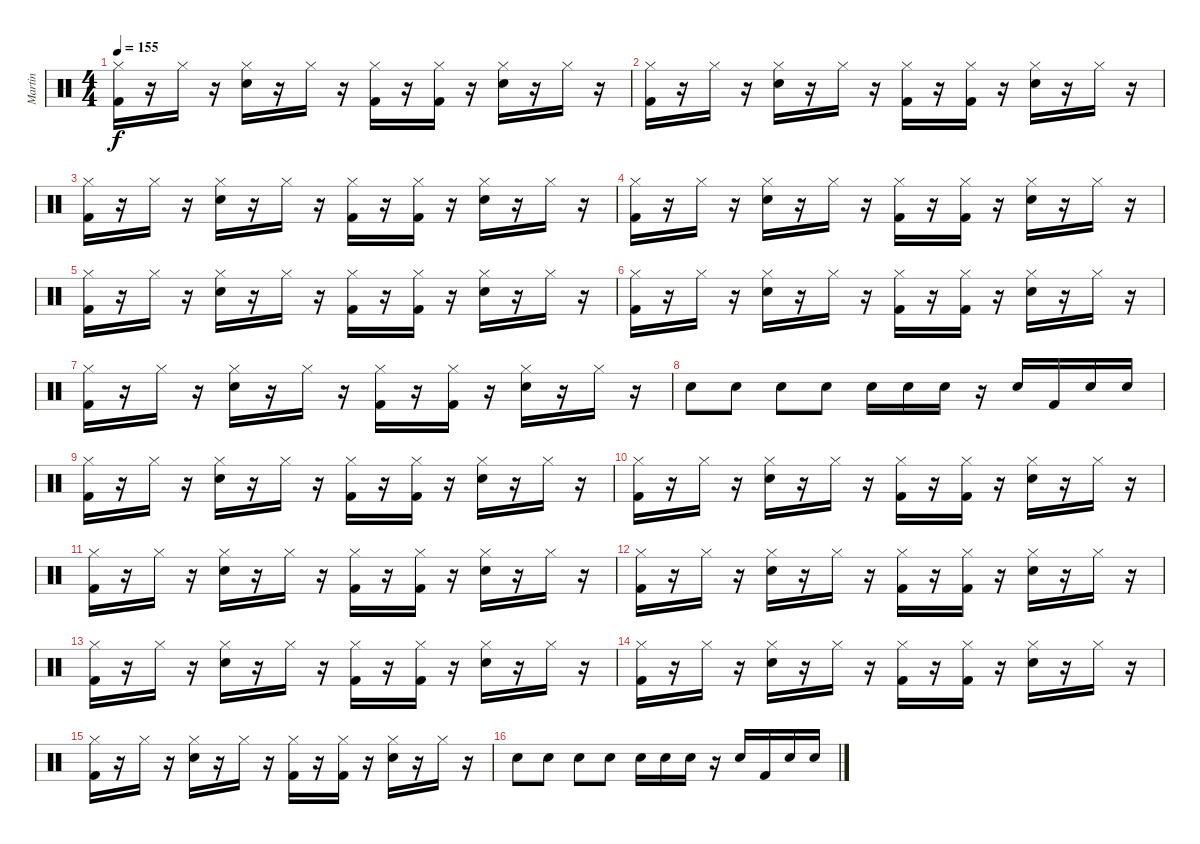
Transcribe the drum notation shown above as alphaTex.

\track ("Martin" "Martin") {instrument percussion}
\staff {score}
\articulation defaults
\ts (4 4)
\tempo 155
\clef neutral
\ks c
("Kick (hit) 2" "Hi-Hat (closed)").16{dy f} r.16 "Hi-Hat (closed)".16 r.16 ("Electric Snare (hit)" "Hi-Hat (closed)").16 r.16 "Hi-Hat (closed)".16 r.16 ("Kick (hit) 2" "Hi-Hat (closed)").16 r.16 ("Kick (hit) 2" "Hi-Hat (closed)").16 r.16 ("Electric Snare (hit)" "Hi-Hat (closed)").16 r.16 "Hi-Hat (closed)".16 r.16 |
("Kick (hit) 2" "Hi-Hat (closed)").16 r.16 "Hi-Hat (closed)".16 r.16 ("Electric Snare (hit)" "Hi-Hat (closed)").16 r.16 "Hi-Hat (closed)".16 r.16 ("Kick (hit) 2" "Hi-Hat (closed)").16 r.16 ("Kick (hit) 2" "Hi-Hat (closed)").16 r.16 ("Electric Snare (hit)" "Hi-Hat (closed)").16 r.16 "Hi-Hat (closed)".16 r.16 |
("Kick (hit) 2" "Hi-Hat (closed)").16 r.16 "Hi-Hat (closed)".16 r.16 ("Electric Snare (hit)" "Hi-Hat (closed)").16 r.16 "Hi-Hat (closed)".16 r.16 ("Kick (hit) 2" "Hi-Hat (closed)").16 r.16 ("Kick (hit) 2" "Hi-Hat (closed)").16 r.16 ("Electric Snare (hit)" "Hi-Hat (closed)").16 r.16 "Hi-Hat (closed)".16 r.16 |
("Kick (hit) 2" "Hi-Hat (closed)").16 r.16 "Hi-Hat (closed)".16 r.16 ("Electric Snare (hit)" "Hi-Hat (closed)").16 r.16 "Hi-Hat (closed)".16 r.16 ("Kick (hit) 2" "Hi-Hat (closed)").16 r.16 ("Kick (hit) 2" "Hi-Hat (closed)").16 r.16 ("Electric Snare (hit)" "Hi-Hat (closed)").16 r.16 "Hi-Hat (closed)".16 r.16 |
("Kick (hit) 2" "Hi-Hat (closed)").16 r.16 "Hi-Hat (closed)".16 r.16 ("Electric Snare (hit)" "Hi-Hat (closed)").16 r.16 "Hi-Hat (closed)".16 r.16 ("Kick (hit) 2" "Hi-Hat (closed)").16 r.16 ("Kick (hit) 2" "Hi-Hat (closed)").16 r.16 ("Electric Snare (hit)" "Hi-Hat (closed)").16 r.16 "Hi-Hat (closed)".16 r.16 |
("Kick (hit) 2" "Hi-Hat (closed)").16 r.16 "Hi-Hat (closed)".16 r.16 ("Electric Snare (hit)" "Hi-Hat (closed)").16 r.16 "Hi-Hat (closed)".16 r.16 ("Kick (hit) 2" "Hi-Hat (closed)").16 r.16 ("Kick (hit) 2" "Hi-Hat (closed)").16 r.16 ("Electric Snare (hit)" "Hi-Hat (closed)").16 r.16 "Hi-Hat (closed)".16 r.16 |
("Kick (hit) 2" "Hi-Hat (closed)").16 r.16 "Hi-Hat (closed)".16 r.16 ("Electric Snare (hit)" "Hi-Hat (closed)").16 r.16 "Hi-Hat (closed)".16 r.16 ("Kick (hit) 2" "Hi-Hat (closed)").16 r.16 ("Kick (hit) 2" "Hi-Hat (closed)").16 r.16 ("Electric Snare (hit)" "Hi-Hat (closed)").16 r.16 "Hi-Hat (closed)".16 r.16 |
"Electric Snare (hit)".8 "Electric Snare (hit)".8 "Electric Snare (hit)".8 "Electric Snare (hit)".8 "Electric Snare (hit)".16 "Electric Snare (hit)".16 "Electric Snare (hit)".16 r.16 "Electric Snare (hit)".16 "Kick (hit) 2".16 "Electric Snare (hit)".16 "Electric Snare (hit)".16 |
("Kick (hit) 2" "Hi-Hat (closed)").16 r.16 "Hi-Hat (closed)".16 r.16 ("Electric Snare (hit)" "Hi-Hat (closed)").16 r.16 "Hi-Hat (closed)".16 r.16 ("Kick (hit) 2" "Hi-Hat (closed)").16 r.16 ("Kick (hit) 2" "Hi-Hat (closed)").16 r.16 ("Electric Snare (hit)" "Hi-Hat (closed)").16 r.16 "Hi-Hat (closed)".16 r.16 |
("Kick (hit) 2" "Hi-Hat (closed)").16 r.16 "Hi-Hat (closed)".16 r.16 ("Electric Snare (hit)" "Hi-Hat (closed)").16 r.16 "Hi-Hat (closed)".16 r.16 ("Kick (hit) 2" "Hi-Hat (closed)").16 r.16 ("Kick (hit) 2" "Hi-Hat (closed)").16 r.16 ("Electric Snare (hit)" "Hi-Hat (closed)").16 r.16 "Hi-Hat (closed)".16 r.16 |
("Kick (hit) 2" "Hi-Hat (closed)").16 r.16 "Hi-Hat (closed)".16 r.16 ("Electric Snare (hit)" "Hi-Hat (closed)").16 r.16 "Hi-Hat (closed)".16 r.16 ("Kick (hit) 2" "Hi-Hat (closed)").16 r.16 ("Kick (hit) 2" "Hi-Hat (closed)").16 r.16 ("Electric Snare (hit)" "Hi-Hat (closed)").16 r.16 "Hi-Hat (closed)".16 r.16 |
("Kick (hit) 2" "Hi-Hat (closed)").16 r.16 "Hi-Hat (closed)".16 r.16 ("Electric Snare (hit)" "Hi-Hat (closed)").16 r.16 "Hi-Hat (closed)".16 r.16 ("Kick (hit) 2" "Hi-Hat (closed)").16 r.16 ("Kick (hit) 2" "Hi-Hat (closed)").16 r.16 ("Electric Snare (hit)" "Hi-Hat (closed)").16 r.16 "Hi-Hat (closed)".16 r.16 |
("Kick (hit) 2" "Hi-Hat (closed)").16 r.16 "Hi-Hat (closed)".16 r.16 ("Electric Snare (hit)" "Hi-Hat (closed)").16 r.16 "Hi-Hat (closed)".16 r.16 ("Kick (hit) 2" "Hi-Hat (closed)").16 r.16 ("Kick (hit) 2" "Hi-Hat (closed)").16 r.16 ("Electric Snare (hit)" "Hi-Hat (closed)").16 r.16 "Hi-Hat (closed)".16 r.16 |
("Kick (hit) 2" "Hi-Hat (closed)").16 r.16 "Hi-Hat (closed)".16 r.16 ("Electric Snare (hit)" "Hi-Hat (closed)").16 r.16 "Hi-Hat (closed)".16 r.16 ("Kick (hit) 2" "Hi-Hat (closed)").16 r.16 ("Kick (hit) 2" "Hi-Hat (closed)").16 r.16 ("Electric Snare (hit)" "Hi-Hat (closed)").16 r.16 "Hi-Hat (closed)".16 r.16 |
("Kick (hit) 2" "Hi-Hat (closed)").16 r.16 "Hi-Hat (closed)".16 r.16 ("Electric Snare (hit)" "Hi-Hat (closed)").16 r.16 "Hi-Hat (closed)".16 r.16 ("Kick (hit) 2" "Hi-Hat (closed)").16 r.16 ("Kick (hit) 2" "Hi-Hat (closed)").16 r.16 ("Electric Snare (hit)" "Hi-Hat (closed)").16 r.16 "Hi-Hat (closed)".16 r.16 |
"Electric Snare (hit)".8 "Electric Snare (hit)".8 "Electric Snare (hit)".8 "Electric Snare (hit)".8 "Electric Snare (hit)".16 "Electric Snare (hit)".16 "Electric Snare (hit)".16 r.16 "Electric Snare (hit)".16 "Kick (hit) 2".16 "Electric Snare (hit)".16 "Electric Snare (hit)".16
